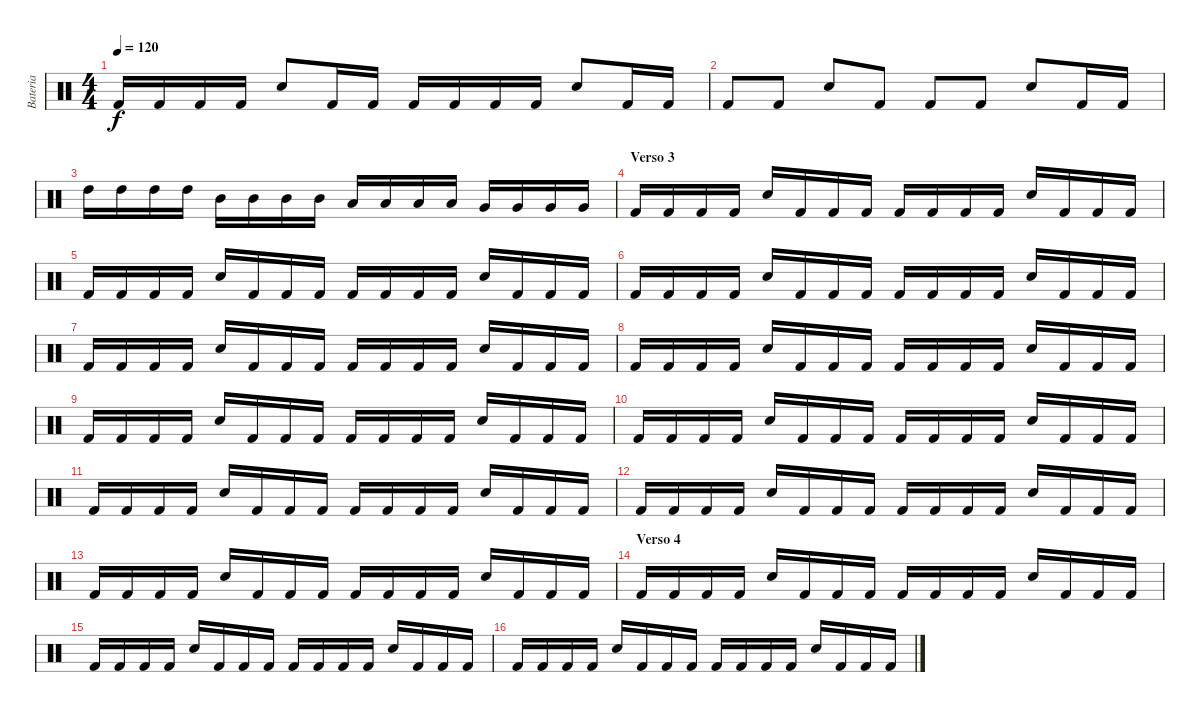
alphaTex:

\track ("Bateria" "Bateria") {instrument percussion}
\staff {score}
\articulation defaults
\ts (4 4)
\tempo 120
\clef neutral
\ks c "Kick (hit) 2".16{dy f} "Kick (hit) 2".16 "Kick (hit) 2".16 "Kick (hit) 2".16 "Snare (hit) 2".8 "Kick (hit) 2".16 "Kick (hit) 2".16 "Kick (hit) 2".16 "Kick (hit) 2".16 "Kick (hit) 2".16 "Kick (hit) 2".16 "Snare (hit) 2".8 "Kick (hit) 2".16 "Kick (hit) 2".16
|
"Kick (hit) 2".8 "Kick (hit) 2".8 "Snare (hit) 2".8 "Kick (hit) 2".8 "Kick (hit) 2".8 "Kick (hit) 2".8 "Snare (hit) 2".8 "Kick (hit) 2".16 "Kick (hit) 2".16 |
"High Tom (hit)".16 "High Tom (hit)".16 "High Tom (hit)".16 "High Tom (hit)".16 "Mid Tom (hit)".16 "Mid Tom (hit)".16 "Mid Tom (hit)".16 "Mid Tom (hit)".16 "Low Tom (hit)".16 "Low Tom (hit)".16 "Low Tom (hit)".16 "Low Tom (hit)".16 "Very Low Tom (hit)".16 "Very Low Tom (hit)".16 "Very Low Tom (hit)".16 "Very Low Tom (hit)".16 |
\section ("" "Verso 3")
"Kick (hit) 2".16 "Kick (hit) 2".16 "Kick (hit) 2".16 "Kick (hit) 2".16 "Snare (hit) 2".16 "Kick (hit) 2".16 "Kick (hit) 2".16 "Kick (hit) 2".16 "Kick (hit) 2".16 "Kick (hit) 2".16 "Kick (hit) 2".16 "Kick (hit) 2".16 "Snare (hit) 2".16 "Kick (hit) 2".16 "Kick (hit) 2".16 "Kick (hit) 2".16 |
"Kick (hit) 2".16 "Kick (hit) 2".16 "Kick (hit) 2".16 "Kick (hit) 2".16 "Snare (hit) 2".16 "Kick (hit) 2".16 "Kick (hit) 2".16 "Kick (hit) 2".16 "Kick (hit) 2".16 "Kick (hit) 2".16 "Kick (hit) 2".16 "Kick (hit) 2".16 "Snare (hit) 2".16 "Kick (hit) 2".16 "Kick (hit) 2".16 "Kick (hit) 2".16 |
"Kick (hit) 2".16 "Kick (hit) 2".16 "Kick (hit) 2".16 "Kick (hit) 2".16 "Snare (hit) 2".16 "Kick (hit) 2".16 "Kick (hit) 2".16 "Kick (hit) 2".16 "Kick (hit) 2".16 "Kick (hit) 2".16 "Kick (hit) 2".16 "Kick (hit) 2".16 "Snare (hit) 2".16 "Kick (hit) 2".16 "Kick (hit) 2".16 "Kick (hit) 2".16 |
"Kick (hit) 2".16 "Kick (hit) 2".16 "Kick (hit) 2".16 "Kick (hit) 2".16 "Snare (hit) 2".16 "Kick (hit) 2".16 "Kick (hit) 2".16 "Kick (hit) 2".16 "Kick (hit) 2".16 "Kick (hit) 2".16 "Kick (hit) 2".16 "Kick (hit) 2".16 "Snare (hit) 2".16 "Kick (hit) 2".16 "Kick (hit) 2".16 "Kick (hit) 2".16 |
"Kick (hit) 2".16 "Kick (hit) 2".16 "Kick (hit) 2".16 "Kick (hit) 2".16 "Snare (hit) 2".16 "Kick (hit) 2".16 "Kick (hit) 2".16 "Kick (hit) 2".16 "Kick (hit) 2".16 "Kick (hit) 2".16 "Kick (hit) 2".16 "Kick (hit) 2".16 "Snare (hit) 2".16 "Kick (hit) 2".16 "Kick (hit) 2".16 "Kick (hit) 2".16 |
"Kick (hit) 2".16 "Kick (hit) 2".16 "Kick (hit) 2".16 "Kick (hit) 2".16 "Snare (hit) 2".16 "Kick (hit) 2".16 "Kick (hit) 2".16 "Kick (hit) 2".16 "Kick (hit) 2".16 "Kick (hit) 2".16 "Kick (hit) 2".16 "Kick (hit) 2".16 "Snare (hit) 2".16 "Kick (hit) 2".16 "Kick (hit) 2".16 "Kick (hit) 2".16 |
"Kick (hit) 2".16 "Kick (hit) 2".16 "Kick (hit) 2".16 "Kick (hit) 2".16 "Snare (hit) 2".16 "Kick (hit) 2".16 "Kick (hit) 2".16 "Kick (hit) 2".16 "Kick (hit) 2".16 "Kick (hit) 2".16 "Kick (hit) 2".16 "Kick (hit) 2".16 "Snare (hit) 2".16 "Kick (hit) 2".16 "Kick (hit) 2".16 "Kick (hit) 2".16 |
"Kick (hit) 2".16 "Kick (hit) 2".16 "Kick (hit) 2".16 "Kick (hit) 2".16 "Snare (hit) 2".16 "Kick (hit) 2".16 "Kick (hit) 2".16 "Kick (hit) 2".16 "Kick (hit) 2".16 "Kick (hit) 2".16 "Kick (hit) 2".16 "Kick (hit) 2".16 "Snare (hit) 2".16 "Kick (hit) 2".16 "Kick (hit) 2".16 "Kick (hit) 2".16 |
"Kick (hit) 2".16 "Kick (hit) 2".16 "Kick (hit) 2".16 "Kick (hit) 2".16 "Snare (hit) 2".16 "Kick (hit) 2".16 "Kick (hit) 2".16 "Kick (hit) 2".16 "Kick (hit) 2".16 "Kick (hit) 2".16 "Kick (hit) 2".16 "Kick (hit) 2".16 "Snare (hit) 2".16 "Kick (hit) 2".16 "Kick (hit) 2".16 "Kick (hit) 2".16 |
"Kick (hit) 2".16 "Kick (hit) 2".16 "Kick (hit) 2".16 "Kick (hit) 2".16 "Snare (hit) 2".16 "Kick (hit) 2".16 "Kick (hit) 2".16 "Kick (hit) 2".16 "Kick (hit) 2".16 "Kick (hit) 2".16 "Kick (hit) 2".16 "Kick (hit) 2".16 "Snare (hit) 2".16 "Kick (hit) 2".16 "Kick (hit) 2".16 "Kick (hit) 2".16 |
\section ("" "Verso 4")
"Kick (hit) 2".16 "Kick (hit) 2".16 "Kick (hit) 2".16 "Kick (hit) 2".16 "Snare (hit) 2".16 "Kick (hit) 2".16 "Kick (hit) 2".16 "Kick (hit) 2".16 "Kick (hit) 2".16 "Kick (hit) 2".16 "Kick (hit) 2".16 "Kick (hit) 2".16 "Snare (hit) 2".16 "Kick (hit) 2".16 "Kick (hit) 2".16 "Kick (hit) 2".16 |
"Kick (hit) 2".16 "Kick (hit) 2".16 "Kick (hit) 2".16 "Kick (hit) 2".16 "Snare (hit) 2".16 "Kick (hit) 2".16 "Kick (hit) 2".16 "Kick (hit) 2".16 "Kick (hit) 2".16 "Kick (hit) 2".16 "Kick (hit) 2".16 "Kick (hit) 2".16 "Snare (hit) 2".16 "Kick (hit) 2".16 "Kick (hit) 2".16 "Kick (hit) 2".16 |
"Kick (hit) 2".16 "Kick (hit) 2".16 "Kick (hit) 2".16 "Kick (hit) 2".16 "Snare (hit) 2".16 "Kick (hit) 2".16 "Kick (hit) 2".16 "Kick (hit) 2".16 "Kick (hit) 2".16 "Kick (hit) 2".16 "Kick (hit) 2".16 "Kick (hit) 2".16 "Snare (hit) 2".16 "Kick (hit) 2".16 "Kick (hit) 2".16 "Kick (hit) 2".16
